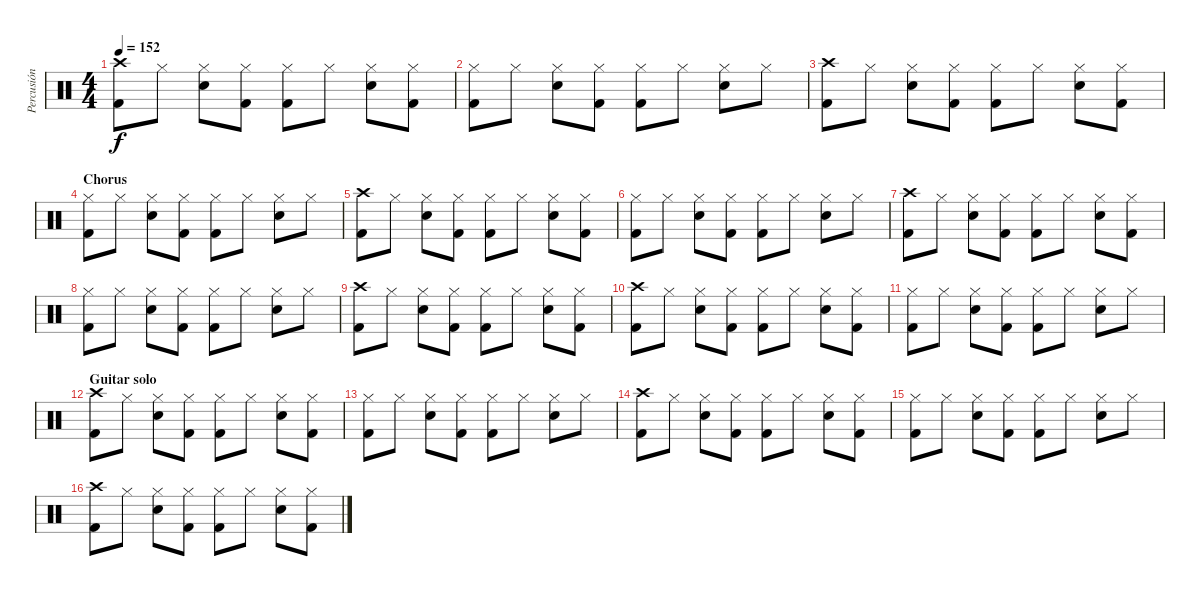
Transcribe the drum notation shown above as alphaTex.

\track ("Percusión" "Percusión") {instrument percussion}
\staff {score}
\articulation defaults
\ts (4 4)
\tempo 152
\clef neutral
\ks c
("Kick (hit) 2" "Crash high (hit)").8{dy f} "Hi-Hat (closed)".8 ("Hi-Hat (closed)" "Electric Snare (hit)").8 ("Kick (hit) 2" "Hi-Hat (closed)").8 ("Kick (hit) 2" "Hi-Hat (closed)").8 "Hi-Hat (closed)".8 ("Hi-Hat (closed)" "Electric Snare (hit)").8 ("Kick (hit) 2" "Hi-Hat (closed)").8 |
("Kick (hit) 2" "Hi-Hat (closed)").8 "Hi-Hat (closed)".8 ("Hi-Hat (closed)" "Electric Snare (hit)").8 ("Kick (hit) 2" "Hi-Hat (closed)").8 ("Kick (hit) 2" "Hi-Hat (closed)").8 "Hi-Hat (closed)".8 ("Hi-Hat (closed)" "Electric Snare (hit)").8 "Hi-Hat (closed)".8 |
("Kick (hit) 2" "Crash high (hit)").8 "Hi-Hat (closed)".8 ("Hi-Hat (closed)" "Electric Snare (hit)").8 ("Kick (hit) 2" "Hi-Hat (closed)").8 ("Kick (hit) 2" "Hi-Hat (closed)").8 "Hi-Hat (closed)".8 ("Hi-Hat (closed)" "Electric Snare (hit)").8 ("Kick (hit) 2" "Hi-Hat (closed)").8 |
\section ("" "Chorus")
("Kick (hit) 2" "Hi-Hat (closed)").8 "Hi-Hat (closed)".8 ("Hi-Hat (closed)" "Electric Snare (hit)").8 ("Kick (hit) 2" "Hi-Hat (closed)").8 ("Kick (hit) 2" "Hi-Hat (closed)").8 "Hi-Hat (closed)".8 ("Hi-Hat (closed)" "Electric Snare (hit)").8 "Hi-Hat (closed)".8 |
("Kick (hit) 2" "Crash high (hit)").8 "Hi-Hat (closed)".8 ("Hi-Hat (closed)" "Electric Snare (hit)").8 ("Kick (hit) 2" "Hi-Hat (closed)").8 ("Kick (hit) 2" "Hi-Hat (closed)").8 "Hi-Hat (closed)".8 ("Hi-Hat (closed)" "Electric Snare (hit)").8 ("Kick (hit) 2" "Hi-Hat (closed)").8 |
("Kick (hit) 2" "Hi-Hat (closed)").8 "Hi-Hat (closed)".8 ("Hi-Hat (closed)" "Electric Snare (hit)").8 ("Kick (hit) 2" "Hi-Hat (closed)").8 ("Kick (hit) 2" "Hi-Hat (closed)").8 "Hi-Hat (closed)".8 ("Hi-Hat (closed)" "Electric Snare (hit)").8 "Hi-Hat (closed)".8 |
("Kick (hit) 2" "Crash high (hit)").8 "Hi-Hat (closed)".8 ("Hi-Hat (closed)" "Electric Snare (hit)").8 ("Kick (hit) 2" "Hi-Hat (closed)").8 ("Kick (hit) 2" "Hi-Hat (closed)").8 "Hi-Hat (closed)".8 ("Hi-Hat (closed)" "Electric Snare (hit)").8 ("Kick (hit) 2" "Hi-Hat (closed)").8 |
("Kick (hit) 2" "Hi-Hat (closed)").8 "Hi-Hat (closed)".8 ("Hi-Hat (closed)" "Electric Snare (hit)").8 ("Kick (hit) 2" "Hi-Hat (closed)").8 ("Kick (hit) 2" "Hi-Hat (closed)").8 "Hi-Hat (closed)".8 ("Hi-Hat (closed)" "Electric Snare (hit)").8 "Hi-Hat (closed)".8 |
("Kick (hit) 2" "Crash high (hit)").8 "Hi-Hat (closed)".8 ("Hi-Hat (closed)" "Electric Snare (hit)").8 ("Kick (hit) 2" "Hi-Hat (closed)").8 ("Kick (hit) 2" "Hi-Hat (closed)").8 "Hi-Hat (closed)".8 ("Hi-Hat (closed)" "Electric Snare (hit)").8 ("Kick (hit) 2" "Hi-Hat (closed)").8 |
("Kick (hit) 2" "Crash high (hit)").8 "Hi-Hat (closed)".8 ("Hi-Hat (closed)" "Electric Snare (hit)").8 ("Kick (hit) 2" "Hi-Hat (closed)").8 ("Kick (hit) 2" "Hi-Hat (closed)").8 "Hi-Hat (closed)".8 ("Hi-Hat (closed)" "Electric Snare (hit)").8 ("Kick (hit) 2" "Hi-Hat (closed)").8 |
("Kick (hit) 2" "Hi-Hat (closed)").8 "Hi-Hat (closed)".8 ("Hi-Hat (closed)" "Electric Snare (hit)").8 ("Kick (hit) 2" "Hi-Hat (closed)").8 ("Kick (hit) 2" "Hi-Hat (closed)").8 "Hi-Hat (closed)".8 ("Hi-Hat (closed)" "Electric Snare (hit)").8 "Hi-Hat (closed)".8 |
\section ("" "Guitar solo")
("Kick (hit) 2" "Crash high (hit)").8 "Hi-Hat (closed)".8 ("Hi-Hat (closed)" "Electric Snare (hit)").8 ("Kick (hit) 2" "Hi-Hat (closed)").8 ("Kick (hit) 2" "Hi-Hat (closed)").8 "Hi-Hat (closed)".8 ("Hi-Hat (closed)" "Electric Snare (hit)").8 ("Kick (hit) 2" "Hi-Hat (closed)").8 |
("Kick (hit) 2" "Hi-Hat (closed)").8 "Hi-Hat (closed)".8 ("Hi-Hat (closed)" "Electric Snare (hit)").8 ("Kick (hit) 2" "Hi-Hat (closed)").8 ("Kick (hit) 2" "Hi-Hat (closed)").8 "Hi-Hat (closed)".8 ("Hi-Hat (closed)" "Electric Snare (hit)").8 "Hi-Hat (closed)".8 |
("Kick (hit) 2" "Crash high (hit)").8 "Hi-Hat (closed)".8 ("Hi-Hat (closed)" "Electric Snare (hit)").8 ("Kick (hit) 2" "Hi-Hat (closed)").8 ("Kick (hit) 2" "Hi-Hat (closed)").8 "Hi-Hat (closed)".8 ("Hi-Hat (closed)" "Electric Snare (hit)").8 ("Kick (hit) 2" "Hi-Hat (closed)").8 |
("Kick (hit) 2" "Hi-Hat (closed)").8 "Hi-Hat (closed)".8 ("Hi-Hat (closed)" "Electric Snare (hit)").8 ("Kick (hit) 2" "Hi-Hat (closed)").8 ("Kick (hit) 2" "Hi-Hat (closed)").8 "Hi-Hat (closed)".8 ("Hi-Hat (closed)" "Electric Snare (hit)").8 "Hi-Hat (closed)".8 |
("Kick (hit) 2" "Crash high (hit)").8 "Hi-Hat (closed)".8 ("Hi-Hat (closed)" "Electric Snare (hit)").8 ("Kick (hit) 2" "Hi-Hat (closed)").8 ("Kick (hit) 2" "Hi-Hat (closed)").8 "Hi-Hat (closed)".8 ("Hi-Hat (closed)" "Electric Snare (hit)").8 ("Kick (hit) 2" "Hi-Hat (closed)").8
